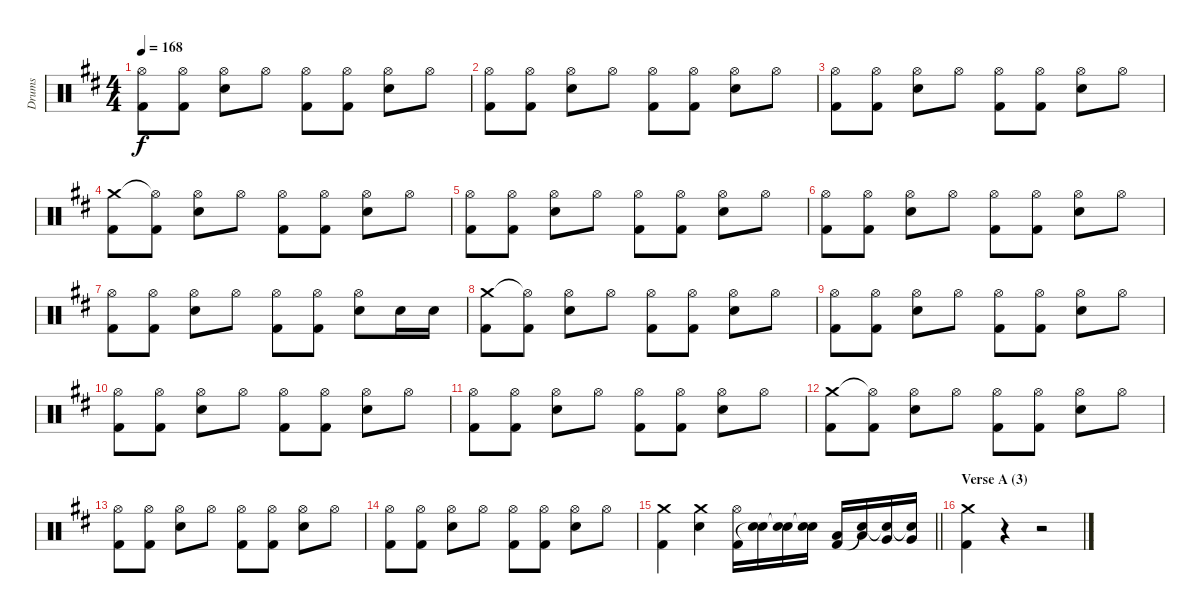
\track ("Drums" "Drums") {instrument percussion}
\staff {score}
\articulation defaults
\ts (4 4)
\tempo 168
\clef neutral
\ks d
("Hi-Hat (open)" "Kick (hit) 2").8{dy f} ("Hi-Hat (open)" "Kick (hit) 2").8 ("Hi-Hat (open)" "Electric Snare (hit)").8 "Hi-Hat (open)".8 ("Hi-Hat (open)" "Kick (hit) 2").8 ("Hi-Hat (open)" "Kick (hit) 2").8 ("Hi-Hat (open)" "Electric Snare (hit)").8 "Hi-Hat (open)".8 |
("Hi-Hat (open)" "Kick (hit) 2").8 ("Hi-Hat (open)" "Kick (hit) 2").8 ("Hi-Hat (open)" "Electric Snare (hit)").8 "Hi-Hat (open)".8 ("Hi-Hat (open)" "Kick (hit) 2").8 ("Hi-Hat (open)" "Kick (hit) 2").8 ("Hi-Hat (open)" "Electric Snare (hit)").8 "Hi-Hat (open)".8 |
("Hi-Hat (open)" "Kick (hit) 2").8 ("Hi-Hat (open)" "Kick (hit) 2").8 ("Hi-Hat (open)" "Electric Snare (hit)").8 "Hi-Hat (open)".8 ("Hi-Hat (open)" "Kick (hit) 2").8 ("Hi-Hat (open)" "Kick (hit) 2").8 ("Hi-Hat (open)" "Electric Snare (hit)").8 "Hi-Hat (open)".8 |
("Crash medium (hit)" "Kick (hit) 2").8 ("Hi-Hat (open)"{t} "Kick (hit) 2").8 ("Hi-Hat (open)" "Electric Snare (hit)").8 "Hi-Hat (open)".8 ("Hi-Hat (open)" "Kick (hit) 2").8 ("Hi-Hat (open)" "Kick (hit) 2").8 ("Hi-Hat (open)" "Electric Snare (hit)").8 "Hi-Hat (open)".8 |
("Hi-Hat (open)" "Kick (hit) 2").8 ("Hi-Hat (open)" "Kick (hit) 2").8 ("Hi-Hat (open)" "Electric Snare (hit)").8 "Hi-Hat (open)".8 ("Hi-Hat (open)" "Kick (hit) 2").8 ("Hi-Hat (open)" "Kick (hit) 2").8 ("Hi-Hat (open)" "Electric Snare (hit)").8 "Hi-Hat (open)".8 |
("Hi-Hat (open)" "Kick (hit) 2").8 ("Hi-Hat (open)" "Kick (hit) 2").8 ("Hi-Hat (open)" "Electric Snare (hit)").8 "Hi-Hat (open)".8 ("Hi-Hat (open)" "Kick (hit) 2").8 ("Hi-Hat (open)" "Kick (hit) 2").8 ("Hi-Hat (open)" "Electric Snare (hit)").8 "Hi-Hat (open)".8 |
("Hi-Hat (open)" "Kick (hit) 2").8 ("Hi-Hat (open)" "Kick (hit) 2").8 ("Hi-Hat (open)" "Electric Snare (hit)").8 "Hi-Hat (open)".8 ("Hi-Hat (open)" "Kick (hit) 2").8 ("Hi-Hat (open)" "Kick (hit) 2").8 ("Hi-Hat (open)" "Electric Snare (hit)").8 "Electric Snare (hit)".16 "Electric Snare (hit)".16 |
("Crash medium (hit)" "Kick (hit) 2").8 ("Hi-Hat (open)"{t} "Kick (hit) 2").8 ("Hi-Hat (open)" "Electric Snare (hit)").8 "Hi-Hat (open)".8 ("Hi-Hat (open)" "Kick (hit) 2").8 ("Hi-Hat (open)" "Kick (hit) 2").8 ("Hi-Hat (open)" "Electric Snare (hit)").8 "Hi-Hat (open)".8 |
("Hi-Hat (open)" "Kick (hit) 2").8 ("Hi-Hat (open)" "Kick (hit) 2").8 ("Hi-Hat (open)" "Electric Snare (hit)").8 "Hi-Hat (open)".8 ("Hi-Hat (open)" "Kick (hit) 2").8 ("Hi-Hat (open)" "Kick (hit) 2").8 ("Hi-Hat (open)" "Electric Snare (hit)").8 "Hi-Hat (open)".8 |
("Hi-Hat (open)" "Kick (hit) 2").8 ("Hi-Hat (open)" "Kick (hit) 2").8 ("Hi-Hat (open)" "Electric Snare (hit)").8 "Hi-Hat (open)".8 ("Hi-Hat (open)" "Kick (hit) 2").8 ("Hi-Hat (open)" "Kick (hit) 2").8 ("Hi-Hat (open)" "Electric Snare (hit)").8 "Hi-Hat (open)".8 |
("Hi-Hat (open)" "Kick (hit) 2").8 ("Hi-Hat (open)" "Kick (hit) 2").8 ("Hi-Hat (open)" "Electric Snare (hit)").8 "Hi-Hat (open)".8 ("Hi-Hat (open)" "Kick (hit) 2").8 ("Hi-Hat (open)" "Kick (hit) 2").8 ("Hi-Hat (open)" "Electric Snare (hit)").8 "Hi-Hat (open)".8 |
("Crash medium (hit)" "Kick (hit) 2").8 ("Hi-Hat (open)"{t} "Kick (hit) 2").8 ("Hi-Hat (open)" "Electric Snare (hit)").8 "Hi-Hat (open)".8 ("Hi-Hat (open)" "Kick (hit) 2").8 ("Hi-Hat (open)" "Kick (hit) 2").8 ("Hi-Hat (open)" "Electric Snare (hit)").8 "Hi-Hat (open)".8 |
("Hi-Hat (open)" "Kick (hit) 2").8 ("Hi-Hat (open)" "Kick (hit) 2").8 ("Hi-Hat (open)" "Electric Snare (hit)").8 "Hi-Hat (open)".8 ("Hi-Hat (open)" "Kick (hit) 2").8 ("Hi-Hat (open)" "Kick (hit) 2").8 ("Hi-Hat (open)" "Electric Snare (hit)").8 "Hi-Hat (open)".8 |
("Hi-Hat (open)" "Kick (hit) 2").8 ("Hi-Hat (open)" "Kick (hit) 2").8 ("Hi-Hat (open)" "Electric Snare (hit)").8 "Hi-Hat (open)".8 ("Hi-Hat (open)" "Kick (hit) 2").8 ("Hi-Hat (open)" "Kick (hit) 2").8 ("Hi-Hat (open)" "Electric Snare (hit)").8 "Hi-Hat (open)".8 |
\barLineRight lightlight
("Crash medium (hit)" "Kick (hit) 2").4 ("Crash medium (hit)" "Electric Snare (hit)").4 ("Hi-Hat (open)" "Kick (hit) 2").16 ("Electric Snare (hit)" "Snare (hit)"{t}).16 ("Electric Snare (hit)" "Snare (hit)"{t}).16 ("Electric Snare (hit)" "Snare (hit)"{t}).16 ("Low Tom (hit)" "Kick (hit) 2").16 ("Low Tom (hit)" "Snare (hit)"{t}).16 ("Very Low Tom (hit)" "Snare (hit)"{t}).16 ("Very Low Tom (hit)" "Snare (hit)"{t}).16 |
\section ("" "Verse A (3)")
("Crash medium (hit)" "Kick (hit) 2").4 r.4 r.2
